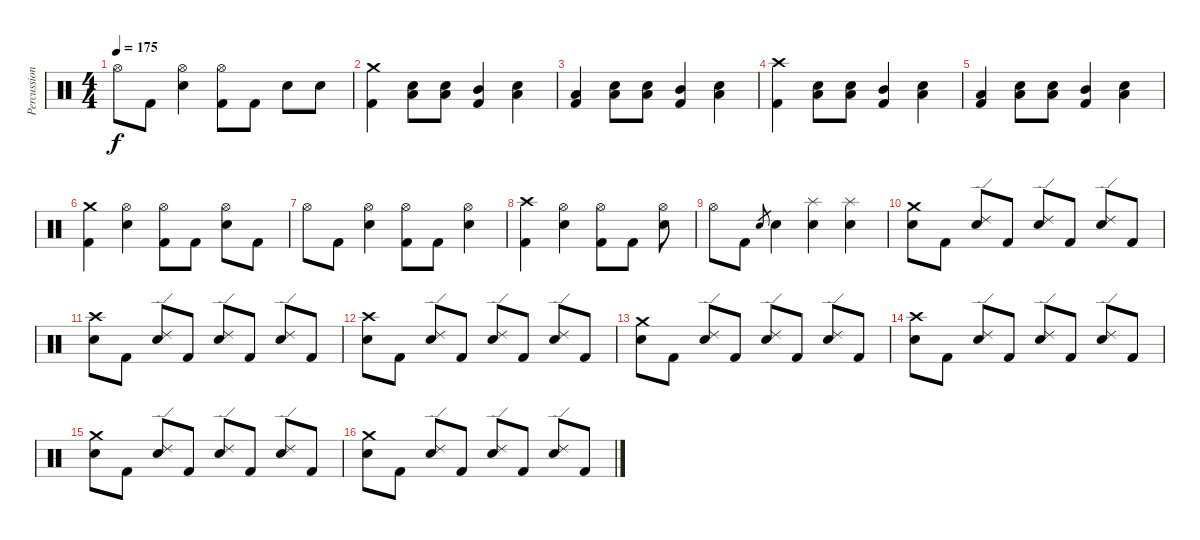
\track ("Percussion" "Percussion") {instrument percussion}
\staff {score}
\articulation defaults
\ts (4 4)
\tempo 175
\clef neutral
\ks c "Hi-Hat (open)".8{dy f} "Kick (hit) 2".8
("Hi-Hat (open)" "Electric Snare (hit)").4 ("Hi-Hat (open)" "Kick (hit) 2").8 "Kick (hit) 2".8 "Electric Snare (hit)".8 "Electric Snare (hit)".8 |
("Crash medium (hit)" "Kick (hit) 2").4 ("Low Tom (hit)" "Electric Snare (hit)").8 ("Low Tom (hit)" "Electric Snare (hit)").8 ("Mid Tom (hit)" "Kick (hit) 2").4 ("Low Tom (hit)" "Electric Snare (hit)").4 |
("Low Tom (hit)" "Kick (hit) 2").4 ("Low Tom (hit)" "Electric Snare (hit)").8 ("Low Tom (hit)" "Electric Snare (hit)").8 ("Mid Tom (hit)" "Kick (hit) 2").4 ("Low Tom (hit)" "Electric Snare (hit)").4 |
("Crash high (hit)" "Kick (hit) 2").4 ("Low Tom (hit)" "Electric Snare (hit)").8 ("Low Tom (hit)" "Electric Snare (hit)").8 ("Mid Tom (hit)" "Kick (hit) 2").4 ("Low Tom (hit)" "Electric Snare (hit)").4 |
("Low Tom (hit)" "Kick (hit) 2").4 ("Low Tom (hit)" "Electric Snare (hit)").8 ("Low Tom (hit)" "Electric Snare (hit)").8 ("Mid Tom (hit)" "Kick (hit) 2").4 ("Low Tom (hit)" "Electric Snare (hit)").4 |
("Crash medium (hit)" "Kick (hit) 2").4 ("Hi-Hat (open)" "Electric Snare (hit)").4 ("Hi-Hat (open)" "Kick (hit) 2").8 "Kick (hit) 2".8 ("Hi-Hat (open)" "Electric Snare (hit)").8 "Kick (hit) 2".8 |
"Hi-Hat (open)".8 "Kick (hit) 2".8 ("Hi-Hat (open)" "Electric Snare (hit)").4 ("Hi-Hat (open)" "Kick (hit) 2").8 "Kick (hit) 2".8 ("Hi-Hat (open)" "Electric Snare (hit)").4 |
("Crash high (hit)" "Kick (hit) 2").4 ("Hi-Hat (open)" "Electric Snare (hit)").4 ("Hi-Hat (open)" "Kick (hit) 2").8 "Kick (hit) 2".8 ("Hi-Hat (open)" "Electric Snare (hit)").8 |
"Hi-Hat (open)".8 "Kick (hit) 2".8 "Electric Snare (hit)".8{gr} "Electric Snare (hit)".4 ("Splash (hit)" "Electric Snare (hit)").4 ("Splash (hit)" "Electric Snare (hit)").4 |
("Crash medium (hit)" "Electric Snare (hit)").8 "Kick (hit) 2".8 ("Ride (edge) 2" "Electric Snare (hit)").8 "Kick (hit) 2".8 ("Ride (edge) 2" "Electric Snare (hit)").8 "Kick (hit) 2".8 ("Ride (edge) 2" "Electric Snare (hit)").8 "Kick (hit) 2".8 |
("Crash high (hit)" "Electric Snare (hit)").8 "Kick (hit) 2".8 ("Ride (edge) 2" "Electric Snare (hit)").8 "Kick (hit) 2".8 ("Ride (edge) 2" "Electric Snare (hit)").8 "Kick (hit) 2".8 ("Ride (edge) 2" "Electric Snare (hit)").8 "Kick (hit) 2".8 |
("Crash high (hit)" "Electric Snare (hit)").8 "Kick (hit) 2".8 ("Ride (edge) 2" "Electric Snare (hit)").8 "Kick (hit) 2".8 ("Ride (edge) 2" "Electric Snare (hit)").8 "Kick (hit) 2".8 ("Ride (edge) 2" "Electric Snare (hit)").8 "Kick (hit) 2".8 |
("Crash medium (hit)" "Electric Snare (hit)").8 "Kick (hit) 2".8 ("Ride (edge) 2" "Electric Snare (hit)").8 "Kick (hit) 2".8 ("Ride (edge) 2" "Electric Snare (hit)").8 "Kick (hit) 2".8 ("Ride (edge) 2" "Electric Snare (hit)").8 "Kick (hit) 2".8 |
("Crash high (hit)" "Electric Snare (hit)").8 "Kick (hit) 2".8 ("Ride (edge) 2" "Electric Snare (hit)").8 "Kick (hit) 2".8 ("Ride (edge) 2" "Electric Snare (hit)").8 "Kick (hit) 2".8 ("Ride (edge) 2" "Electric Snare (hit)").8 "Kick (hit) 2".8 |
("Crash medium (hit)" "Electric Snare (hit)").8 "Kick (hit) 2".8 ("Ride (edge) 2" "Electric Snare (hit)").8 "Kick (hit) 2".8 ("Ride (edge) 2" "Electric Snare (hit)").8 "Kick (hit) 2".8 ("Ride (edge) 2" "Electric Snare (hit)").8 "Kick (hit) 2".8 |
("Crash medium (hit)" "Electric Snare (hit)").8 "Kick (hit) 2".8 ("Ride (edge) 2" "Electric Snare (hit)").8 "Kick (hit) 2".8 ("Ride (edge) 2" "Electric Snare (hit)").8 "Kick (hit) 2".8 ("Ride (edge) 2" "Electric Snare (hit)").8 "Kick (hit) 2".8
